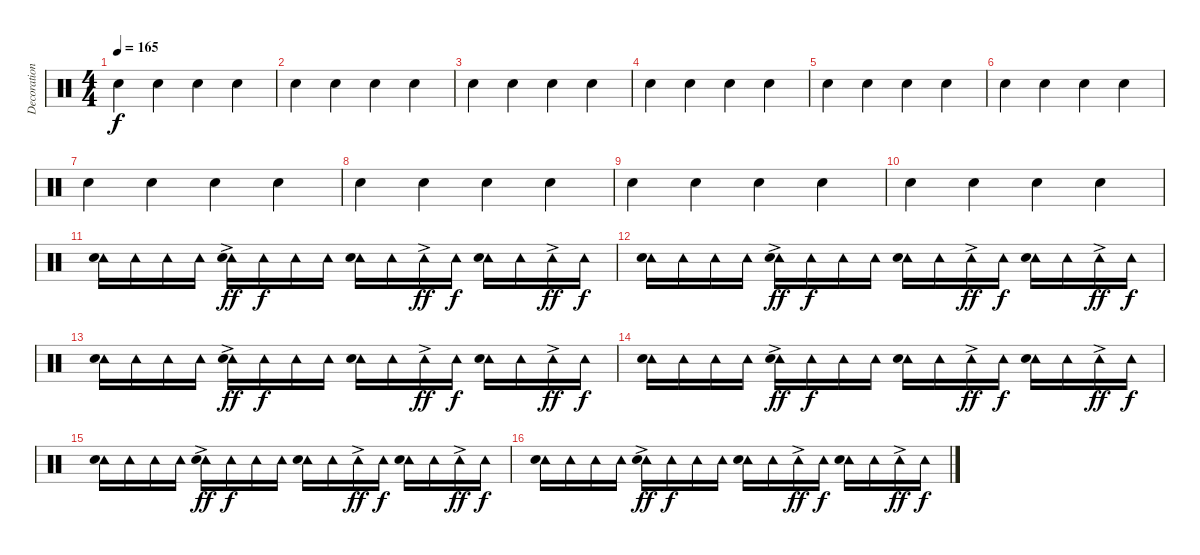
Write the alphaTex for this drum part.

\track ("Decoration" "Decoration") {instrument percussion}
\staff {score}
\articulation defaults
\ts (4 4)
\tempo 165
\clef neutral
\ks c "Hand Clap (hit)".4{dy f} "Hand Clap (hit)".4 "Hand Clap (hit)".4 "Hand Clap (hit)".4
|
"Hand Clap (hit)".4 "Hand Clap (hit)".4 "Hand Clap (hit)".4 "Hand Clap (hit)".4 |
"Hand Clap (hit)".4 "Hand Clap (hit)".4 "Hand Clap (hit)".4 "Hand Clap (hit)".4 |
"Hand Clap (hit)".4 "Hand Clap (hit)".4 "Hand Clap (hit)".4 "Hand Clap (hit)".4 |
"Hand Clap (hit)".4 "Hand Clap (hit)".4 "Hand Clap (hit)".4 "Hand Clap (hit)".4 |
"Hand Clap (hit)".4 "Hand Clap (hit)".4 "Hand Clap (hit)".4 "Hand Clap (hit)".4 |
"Hand Clap (hit)".4 "Hand Clap (hit)".4 "Hand Clap (hit)".4 "Hand Clap (hit)".4 |
"Hand Clap (hit)".4 "Hand Clap (hit)".4 "Hand Clap (hit)".4 "Hand Clap (hit)".4 |
"Hand Clap (hit)".4 "Hand Clap (hit)".4 "Hand Clap (hit)".4 "Hand Clap (hit)".4 |
"Hand Clap (hit)".4 "Hand Clap (hit)".4 "Hand Clap (hit)".4 "Hand Clap (hit)".4 |
("Tambourine (hit)" "Snare (hit) 2").16 "Tambourine (hit)".16 "Tambourine (hit)".16 "Tambourine (hit)".16 ("Tambourine (hit)"{ac} "Snare (hit) 2").16{dy ff} "Tambourine (hit)".16{dy f} "Tambourine (hit)".16 "Tambourine (hit)".16 ("Tambourine (hit)" "Snare (hit) 2").16 "Tambourine (hit)".16 "Tambourine (hit)"{ac}.16{dy ff} "Tambourine (hit)".16{dy f} ("Tambourine (hit)" "Snare (hit) 2").16 "Tambourine (hit)".16 "Tambourine (hit)"{ac}.16{dy ff} "Tambourine (hit)".16{dy f} |
("Tambourine (hit)" "Snare (hit) 2").16 "Tambourine (hit)".16 "Tambourine (hit)".16 "Tambourine (hit)".16 ("Tambourine (hit)"{ac} "Snare (hit) 2").16{dy ff} "Tambourine (hit)".16{dy f} "Tambourine (hit)".16 "Tambourine (hit)".16 ("Tambourine (hit)" "Snare (hit) 2").16 "Tambourine (hit)".16 "Tambourine (hit)"{ac}.16{dy ff} "Tambourine (hit)".16{dy f} ("Tambourine (hit)" "Snare (hit) 2").16 "Tambourine (hit)".16 "Tambourine (hit)"{ac}.16{dy ff} "Tambourine (hit)".16{dy f} |
("Tambourine (hit)" "Snare (hit) 2").16 "Tambourine (hit)".16 "Tambourine (hit)".16 "Tambourine (hit)".16 ("Tambourine (hit)"{ac} "Snare (hit) 2").16{dy ff} "Tambourine (hit)".16{dy f} "Tambourine (hit)".16 "Tambourine (hit)".16 ("Tambourine (hit)" "Snare (hit) 2").16 "Tambourine (hit)".16 "Tambourine (hit)"{ac}.16{dy ff} "Tambourine (hit)".16{dy f} ("Tambourine (hit)" "Snare (hit) 2").16 "Tambourine (hit)".16 "Tambourine (hit)"{ac}.16{dy ff} "Tambourine (hit)".16{dy f} |
("Tambourine (hit)" "Snare (hit) 2").16 "Tambourine (hit)".16 "Tambourine (hit)".16 "Tambourine (hit)".16 ("Tambourine (hit)"{ac} "Snare (hit) 2").16{dy ff} "Tambourine (hit)".16{dy f} "Tambourine (hit)".16 "Tambourine (hit)".16 ("Tambourine (hit)" "Snare (hit) 2").16 "Tambourine (hit)".16 "Tambourine (hit)"{ac}.16{dy ff} "Tambourine (hit)".16{dy f} ("Tambourine (hit)" "Snare (hit) 2").16 "Tambourine (hit)".16 "Tambourine (hit)"{ac}.16{dy ff} "Tambourine (hit)".16{dy f} |
("Tambourine (hit)" "Snare (hit) 2").16 "Tambourine (hit)".16 "Tambourine (hit)".16 "Tambourine (hit)".16 ("Tambourine (hit)"{ac} "Snare (hit) 2").16{dy ff} "Tambourine (hit)".16{dy f} "Tambourine (hit)".16 "Tambourine (hit)".16 ("Tambourine (hit)" "Snare (hit) 2").16 "Tambourine (hit)".16 "Tambourine (hit)"{ac}.16{dy ff} "Tambourine (hit)".16{dy f} ("Tambourine (hit)" "Snare (hit) 2").16 "Tambourine (hit)".16 "Tambourine (hit)"{ac}.16{dy ff} "Tambourine (hit)".16{dy f} |
("Tambourine (hit)" "Snare (hit) 2").16 "Tambourine (hit)".16 "Tambourine (hit)".16 "Tambourine (hit)".16 ("Tambourine (hit)"{ac} "Snare (hit) 2").16{dy ff} "Tambourine (hit)".16{dy f} "Tambourine (hit)".16 "Tambourine (hit)".16 ("Tambourine (hit)" "Snare (hit) 2").16 "Tambourine (hit)".16 "Tambourine (hit)"{ac}.16{dy ff} "Tambourine (hit)".16{dy f} ("Tambourine (hit)" "Snare (hit) 2").16 "Tambourine (hit)".16 "Tambourine (hit)"{ac}.16{dy ff} "Tambourine (hit)".16{dy f}
